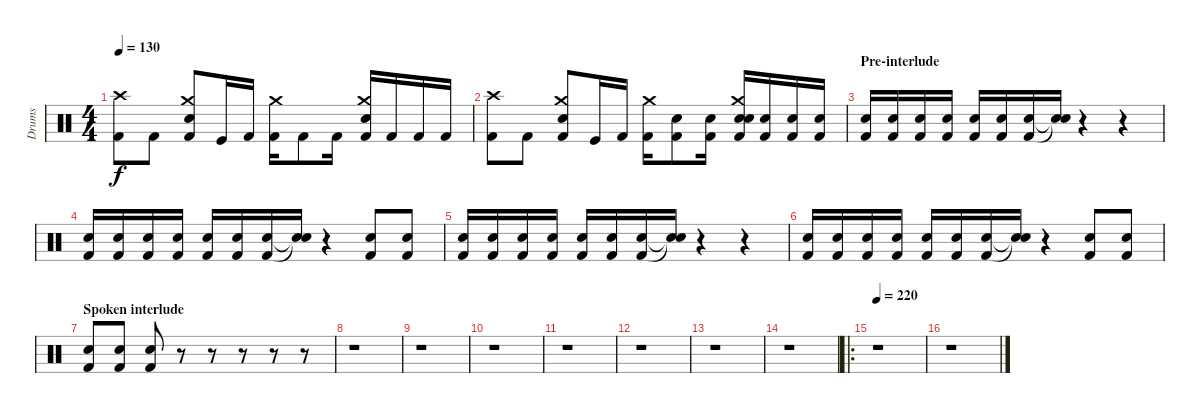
\track ("Drums" "Drums") {instrument percussion}
\staff {score}
\articulation defaults
\ts (4 4)
\tempo 130
\clef neutral
\ks c
("Crash high (hit)" "Kick (hit) 2").8{dy f} "Kick (hit) 2".8 ("Crash medium (hit)" "Electric Snare (hit)" "Kick (hit) 2").8 "Kick (hit)".16 "Kick (hit) 2".16 ("Crash medium (hit)" "Kick (hit) 2").16 "Kick (hit) 2".8 "Kick (hit) 2".16 ("Crash medium (hit)" "Electric Snare (hit)" "Kick (hit) 2").16 "Kick (hit) 2".16 "Kick (hit) 2".16 "Kick (hit) 2".16 |
("Crash high (hit)" "Kick (hit) 2").8 "Kick (hit) 2".8 ("Crash medium (hit)" "Electric Snare (hit)" "Kick (hit) 2").8 "Kick (hit)".16 "Kick (hit) 2".16 ("Crash medium (hit)" "Kick (hit) 2").16 ("Electric Snare (hit)" "Kick (hit) 2").8 ("Electric Snare (hit)" "Kick (hit) 2").16 ("Crash medium (hit)" "Electric Snare (hit)" "Electric Snare (hit)" "Kick (hit) 2").16 ("Electric Snare (hit)" "Kick (hit) 2").16 ("Electric Snare (hit)" "Kick (hit) 2").16 ("Electric Snare (hit)" "Kick (hit) 2").16 |
\section ("" "Pre-interlude")
("Electric Snare (hit)" "Kick (hit) 2").16 ("Electric Snare (hit)" "Kick (hit) 2").16 ("Electric Snare (hit)" "Kick (hit) 2").16 ("Electric Snare (hit)" "Kick (hit) 2").16 ("Electric Snare (hit)" "Kick (hit) 2").16 ("Electric Snare (hit)" "Kick (hit) 2").16 ("Electric Snare (hit)" "Kick (hit) 2").16 ("Snare (hit)"{t} "Snare (hit)"{t}).16 r.4 r.4 |
("Electric Snare (hit)" "Kick (hit) 2").16 ("Electric Snare (hit)" "Kick (hit) 2").16 ("Electric Snare (hit)" "Kick (hit) 2").16 ("Electric Snare (hit)" "Kick (hit) 2").16 ("Electric Snare (hit)" "Kick (hit) 2").16 ("Electric Snare (hit)" "Kick (hit) 2").16 ("Electric Snare (hit)" "Kick (hit) 2").16 ("Snare (hit)"{t} "Snare (hit)"{t}).16 r.4 ("Electric Snare (hit)" "Kick (hit) 2").8 ("Electric Snare (hit)" "Kick (hit) 2").8 |
("Electric Snare (hit)" "Kick (hit) 2").16 ("Electric Snare (hit)" "Kick (hit) 2").16 ("Electric Snare (hit)" "Kick (hit) 2").16 ("Electric Snare (hit)" "Kick (hit) 2").16 ("Electric Snare (hit)" "Kick (hit) 2").16 ("Electric Snare (hit)" "Kick (hit) 2").16 ("Electric Snare (hit)" "Kick (hit) 2").16 ("Snare (hit)"{t} "Snare (hit)"{t}).16 r.4 r.4 |
("Electric Snare (hit)" "Kick (hit) 2").16 ("Electric Snare (hit)" "Kick (hit) 2").16 ("Electric Snare (hit)" "Kick (hit) 2").16 ("Electric Snare (hit)" "Kick (hit) 2").16 ("Electric Snare (hit)" "Kick (hit) 2").16 ("Electric Snare (hit)" "Kick (hit) 2").16 ("Electric Snare (hit)" "Kick (hit) 2").16 ("Snare (hit)"{t} "Snare (hit)"{t}).16 r.4 ("Electric Snare (hit)" "Kick (hit) 2").8 ("Electric Snare (hit)" "Kick (hit) 2").8 |
\section ("" "Spoken interlude")
("Electric Snare (hit)" "Kick (hit) 2").8 ("Electric Snare (hit)" "Kick (hit) 2").8 ("Electric Snare (hit)" "Kick (hit) 2").8 r.8 r.8 r.8 r.8 r.8 |
r.1 |
r.1 |
r.1 |
r.1 |
r.1 |
r.1 |
r.1 |
\ro
\tempo 220
r.1 |
r.1
